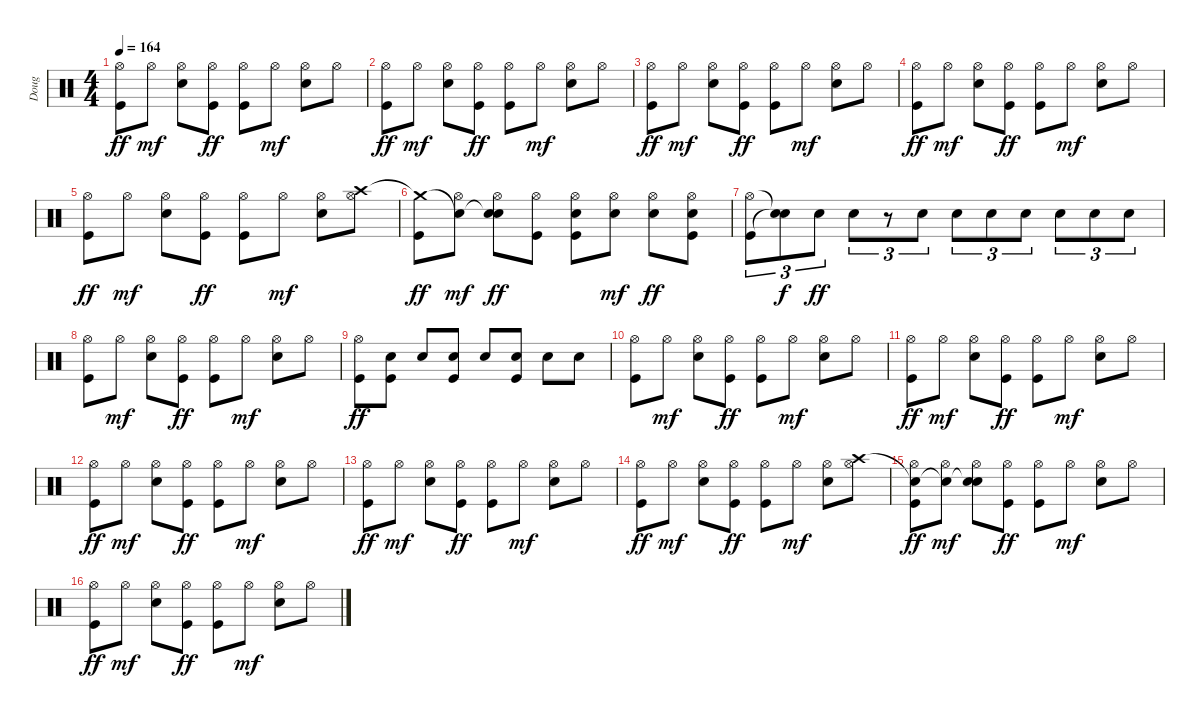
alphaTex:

\track ("Doug" "Doug") {instrument percussion}
\staff {score}
\articulation defaults
\ts (4 4)
\tempo 164
\clef neutral
\ks c
("Hi-Hat (open)" "Kick (hit)").8{dy ff} "Hi-Hat (open)".8{dy mf} ("Hi-Hat (open)" "Electric Snare (hit)").8 ("Hi-Hat (open)" "Kick (hit)").8{dy ff} ("Hi-Hat (open)" "Kick (hit)").8 "Hi-Hat (open)".8{dy mf} ("Hi-Hat (open)" "Electric Snare (hit)").8 "Hi-Hat (open)".8 |
("Hi-Hat (open)" "Kick (hit)").8{dy ff} "Hi-Hat (open)".8{dy mf} ("Hi-Hat (open)" "Electric Snare (hit)").8 ("Hi-Hat (open)" "Kick (hit)").8{dy ff} ("Hi-Hat (open)" "Kick (hit)").8 "Hi-Hat (open)".8{dy mf} ("Hi-Hat (open)" "Electric Snare (hit)").8 "Hi-Hat (open)".8 |
("Hi-Hat (open)" "Kick (hit)").8{dy ff} "Hi-Hat (open)".8{dy mf} ("Hi-Hat (open)" "Electric Snare (hit)").8 ("Hi-Hat (open)" "Kick (hit)").8{dy ff} ("Hi-Hat (open)" "Kick (hit)").8 "Hi-Hat (open)".8{dy mf} ("Hi-Hat (open)" "Electric Snare (hit)").8 "Hi-Hat (open)".8 |
("Hi-Hat (open)" "Kick (hit)").8{dy ff} "Hi-Hat (open)".8{dy mf} ("Hi-Hat (open)" "Electric Snare (hit)").8 ("Hi-Hat (open)" "Kick (hit)").8{dy ff} ("Hi-Hat (open)" "Kick (hit)").8 "Hi-Hat (open)".8{dy mf} ("Hi-Hat (open)" "Electric Snare (hit)").8 "Hi-Hat (open)".8 |
("Hi-Hat (open)" "Kick (hit)").8{dy ff} "Hi-Hat (open)".8{dy mf} ("Hi-Hat (open)" "Electric Snare (hit)").8 ("Hi-Hat (open)" "Kick (hit)").8{dy ff} ("Hi-Hat (open)" "Kick (hit)").8 "Hi-Hat (open)".8{dy mf} ("Hi-Hat (open)" "Electric Snare (hit)").8 ("Crash high (hit)" "Hi-Hat (open)").8 |
("Crash medium (hit)"{t} "Kick (hit)").8{dy ff} ("Snare (hit)"{t} "Hi-Hat (open)").8{dy mf} ("Electric Snare (hit)"{t} "Hi-Hat (open)" "Electric Snare (hit)").8{dy ff} ("Hi-Hat (open)" "Kick (hit)").8 ("Hi-Hat (open)" "Electric Snare (hit)" "Kick (hit)").8 ("Hi-Hat (open)" "Electric Snare (hit)").8{dy mf} ("Hi-Hat (open)" "Electric Snare (hit)").8{dy ff} ("Hi-Hat (open)" "Electric Snare (hit)" "Kick (hit)").8 |
("Hi-Hat (open)" "Kick (hit)").8{tu (3 2)} ("Snare (hit)"{t} "Snare (hit)"{t}).8{tu (3 2) dy f} "Electric Snare (hit)".8{tu (3 2) dy ff} "Electric Snare (hit)".8{tu (3 2)} r.8{tu (3 2)} "Electric Snare (hit)".8{tu (3 2)} "Electric Snare (hit)".8{tu (3 2)} "Electric Snare (hit)".8{tu (3 2)} "Electric Snare (hit)".8{tu (3 2)} "Electric Snare (hit)".8{tu (3 2)} "Electric Snare (hit)".8{tu (3 2)} "Electric Snare (hit)".8{tu (3 2)} |
("Hi-Hat (open)" "Kick (hit)").8 "Hi-Hat (open)".8{dy mf} ("Hi-Hat (open)" "Electric Snare (hit)").8 ("Hi-Hat (open)" "Kick (hit)").8{dy ff} ("Hi-Hat (open)" "Kick (hit)").8 "Hi-Hat (open)".8{dy mf} ("Hi-Hat (open)" "Electric Snare (hit)").8 "Hi-Hat (open)".8 |
("Hi-Hat (open)" "Kick (hit)").8{dy ff} ("Electric Snare (hit)" "Kick (hit)").8 "Electric Snare (hit)".8 ("Electric Snare (hit)" "Kick (hit)").8 "Electric Snare (hit)".8 ("Electric Snare (hit)" "Kick (hit)").8 "Electric Snare (hit)".8 "Electric Snare (hit)".8 |
("Hi-Hat (open)" "Kick (hit)").8 "Hi-Hat (open)".8{dy mf} ("Hi-Hat (open)" "Electric Snare (hit)").8 ("Hi-Hat (open)" "Kick (hit)").8{dy ff} ("Hi-Hat (open)" "Kick (hit)").8 "Hi-Hat (open)".8{dy mf} ("Hi-Hat (open)" "Electric Snare (hit)").8 "Hi-Hat (open)".8 |
("Hi-Hat (open)" "Kick (hit)").8{dy ff} "Hi-Hat (open)".8{dy mf} ("Hi-Hat (open)" "Electric Snare (hit)").8 ("Hi-Hat (open)" "Kick (hit)").8{dy ff} ("Hi-Hat (open)" "Kick (hit)").8 "Hi-Hat (open)".8{dy mf} ("Hi-Hat (open)" "Electric Snare (hit)").8 "Hi-Hat (open)".8 |
("Hi-Hat (open)" "Kick (hit)").8{dy ff} "Hi-Hat (open)".8{dy mf} ("Hi-Hat (open)" "Electric Snare (hit)").8 ("Hi-Hat (open)" "Kick (hit)").8{dy ff} ("Hi-Hat (open)" "Kick (hit)").8 "Hi-Hat (open)".8{dy mf} ("Hi-Hat (open)" "Electric Snare (hit)").8 "Hi-Hat (open)".8 |
("Hi-Hat (open)" "Kick (hit)").8{dy ff} "Hi-Hat (open)".8{dy mf} ("Hi-Hat (open)" "Electric Snare (hit)").8 ("Hi-Hat (open)" "Kick (hit)").8{dy ff} ("Hi-Hat (open)" "Kick (hit)").8 "Hi-Hat (open)".8{dy mf} ("Hi-Hat (open)" "Electric Snare (hit)").8 "Hi-Hat (open)".8 |
("Hi-Hat (open)" "Kick (hit)").8{dy ff} "Hi-Hat (open)".8{dy mf} ("Hi-Hat (open)" "Electric Snare (hit)").8 ("Hi-Hat (open)" "Kick (hit)").8{dy ff} ("Hi-Hat (open)" "Kick (hit)").8 "Hi-Hat (open)".8{dy mf} ("Hi-Hat (open)" "Electric Snare (hit)").8 ("Crash high (hit)" "Hi-Hat (open)").8 |
("Snare (hit)"{t} "Hi-Hat (open)" "Kick (hit)").8{dy ff} ("Snare (hit)"{t} "Hi-Hat (open)").8{dy mf} ("Snare (hit)"{t} "Hi-Hat (open)" "Electric Snare (hit)").8 ("Hi-Hat (open)" "Kick (hit)").8{dy ff} ("Hi-Hat (open)" "Kick (hit)").8 "Hi-Hat (open)".8{dy mf} ("Hi-Hat (open)" "Electric Snare (hit)").8 "Hi-Hat (open)".8 |
("Hi-Hat (open)" "Kick (hit)").8{dy ff} "Hi-Hat (open)".8{dy mf} ("Hi-Hat (open)" "Electric Snare (hit)").8 ("Hi-Hat (open)" "Kick (hit)").8{dy ff} ("Hi-Hat (open)" "Kick (hit)").8 "Hi-Hat (open)".8{dy mf} ("Hi-Hat (open)" "Electric Snare (hit)").8 "Hi-Hat (open)".8
